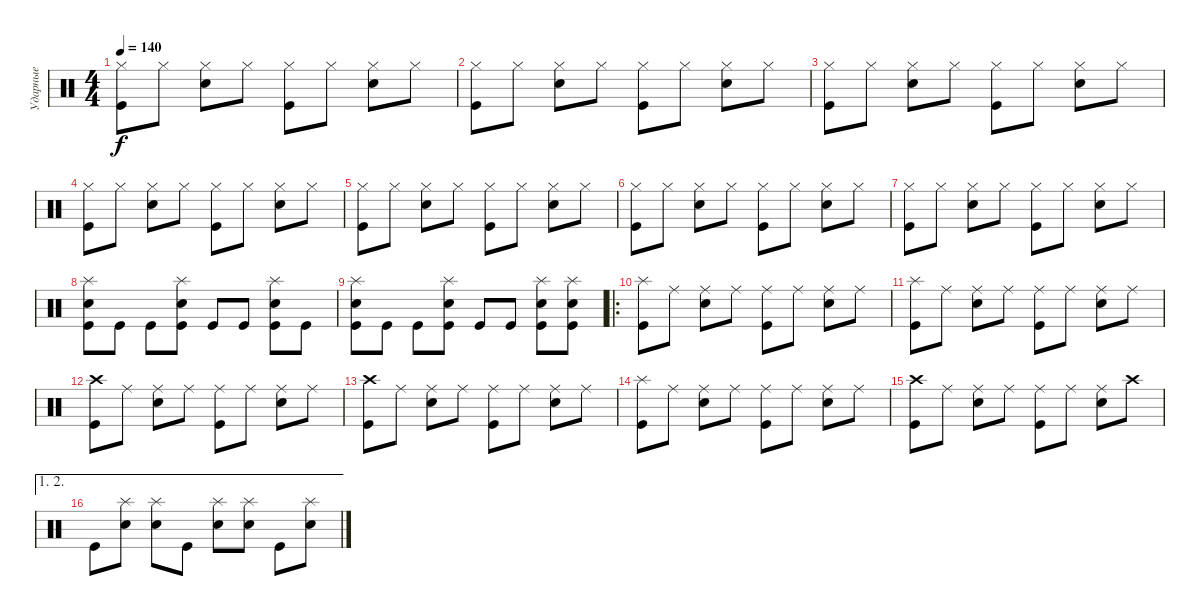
\track ("Ударные" "Ударные") {instrument percussion}
\staff {score}
\articulation defaults
\ts (4 4)
\tempo 140
\clef neutral
\ks c
("Hi-Hat (closed)" "Kick (hit)").8{dy f} "Hi-Hat (closed)".8 ("Hi-Hat (closed)" "Snare (hit) 2").8 "Hi-Hat (closed)".8 ("Hi-Hat (closed)" "Kick (hit)").8 "Hi-Hat (closed)".8 ("Hi-Hat (closed)" "Snare (hit) 2").8 "Hi-Hat (closed)".8 |
("Hi-Hat (closed)" "Kick (hit)").8 "Hi-Hat (closed)".8 ("Hi-Hat (closed)" "Snare (hit) 2").8 "Hi-Hat (closed)".8 ("Hi-Hat (closed)" "Kick (hit)").8 "Hi-Hat (closed)".8 ("Hi-Hat (closed)" "Snare (hit) 2").8 "Hi-Hat (closed)".8 |
("Hi-Hat (closed)" "Kick (hit)").8 "Hi-Hat (closed)".8 ("Hi-Hat (closed)" "Snare (hit) 2").8 "Hi-Hat (closed)".8 ("Hi-Hat (closed)" "Kick (hit)").8 "Hi-Hat (closed)".8 ("Hi-Hat (closed)" "Snare (hit) 2").8 "Hi-Hat (closed)".8 |
("Hi-Hat (closed)" "Kick (hit)").8 "Hi-Hat (closed)".8 ("Hi-Hat (closed)" "Snare (hit) 2").8 "Hi-Hat (closed)".8 ("Hi-Hat (closed)" "Kick (hit)").8 "Hi-Hat (closed)".8 ("Hi-Hat (closed)" "Snare (hit) 2").8 "Hi-Hat (closed)".8 |
("Hi-Hat (closed)" "Kick (hit)").8 "Hi-Hat (closed)".8 ("Hi-Hat (closed)" "Snare (hit) 2").8 "Hi-Hat (closed)".8 ("Hi-Hat (closed)" "Kick (hit)").8 "Hi-Hat (closed)".8 ("Hi-Hat (closed)" "Snare (hit) 2").8 "Hi-Hat (closed)".8 |
("Hi-Hat (closed)" "Kick (hit)").8 "Hi-Hat (closed)".8 ("Hi-Hat (closed)" "Snare (hit) 2").8 "Hi-Hat (closed)".8 ("Hi-Hat (closed)" "Kick (hit)").8 "Hi-Hat (closed)".8 ("Hi-Hat (closed)" "Snare (hit) 2").8 "Hi-Hat (closed)".8 |
("Hi-Hat (closed)" "Kick (hit)").8 "Hi-Hat (closed)".8 ("Hi-Hat (closed)" "Snare (hit) 2").8 "Hi-Hat (closed)".8 ("Hi-Hat (closed)" "Kick (hit)").8 "Hi-Hat (closed)".8 ("Hi-Hat (closed)" "Snare (hit) 2").8 "Hi-Hat (closed)".8 |
("Splash (hit)" "Kick (hit)" "Snare (hit) 2").8 "Kick (hit)".8 "Kick (hit)".8 ("Splash (hit)" "Kick (hit)" "Snare (hit) 2").8 "Kick (hit)".8 "Kick (hit)".8 ("Splash (hit)" "Kick (hit)" "Snare (hit) 2").8 "Kick (hit)".8 |
("Splash (hit)" "Kick (hit)" "Snare (hit) 2").8 "Kick (hit)".8 "Kick (hit)".8 ("Splash (hit)" "Kick (hit)" "Snare (hit) 2").8 "Kick (hit)".8 "Kick (hit)".8 ("Splash (hit)" "Kick (hit)" "Snare (hit) 2").8 ("Splash (hit)" "Kick (hit)" "Snare (hit) 2").8 |
\ro
("Splash (hit)" "Kick (hit)").8 "Ride (middle)".8 ("Ride (middle)" "Snare (hit) 2").8 "Ride (middle)".8 ("Ride (middle)" "Kick (hit)").8 "Ride (middle)".8 ("Ride (middle)" "Snare (hit) 2").8 "Ride (middle)".8 |
("Splash (hit)" "Kick (hit)").8 "Ride (middle)".8 ("Ride (middle)" "Snare (hit) 2").8 "Ride (middle)".8 ("Ride (middle)" "Kick (hit)").8 "Ride (middle)".8 ("Ride (middle)" "Snare (hit) 2").8 "Ride (middle)".8 |
("Crash high (hit)" "Kick (hit)").8 "Ride (middle)".8 ("Ride (middle)" "Snare (hit) 2").8 "Ride (middle)".8 ("Ride (middle)" "Kick (hit)").8 "Ride (middle)".8 ("Ride (middle)" "Snare (hit) 2").8 "Ride (middle)".8 |
("Crash high (hit)" "Kick (hit)").8 "Ride (middle)".8 ("Ride (middle)" "Snare (hit) 2").8 "Ride (middle)".8 ("Ride (middle)" "Kick (hit)").8 "Ride (middle)".8 ("Ride (middle)" "Snare (hit) 2").8 "Ride (middle)".8 |
("Splash (hit)" "Kick (hit)").8 "Ride (middle)".8 ("Ride (middle)" "Snare (hit) 2").8 "Ride (middle)".8 ("Ride (middle)" "Kick (hit)").8 "Ride (middle)".8 ("Ride (middle)" "Snare (hit) 2").8 "Ride (middle)".8 |
("Crash high (hit)" "Kick (hit)").8 "Ride (middle)".8 ("Ride (middle)" "Snare (hit) 2").8 "Ride (middle)".8 ("Ride (middle)" "Kick (hit)").8 "Ride (middle)".8 ("Ride (middle)" "Snare (hit) 2").8 "Crash high (hit)".8 |
\ae (1 2)
"Kick (hit)".8 ("Splash (hit)" "Snare (hit) 2").8 ("Splash (hit)" "Snare (hit) 2").8 "Kick (hit)".8 ("Splash (hit)" "Snare (hit) 2").8 ("Splash (hit)" "Snare (hit) 2").8 "Kick (hit)".8 ("Splash (hit)" "Snare (hit) 2").8
